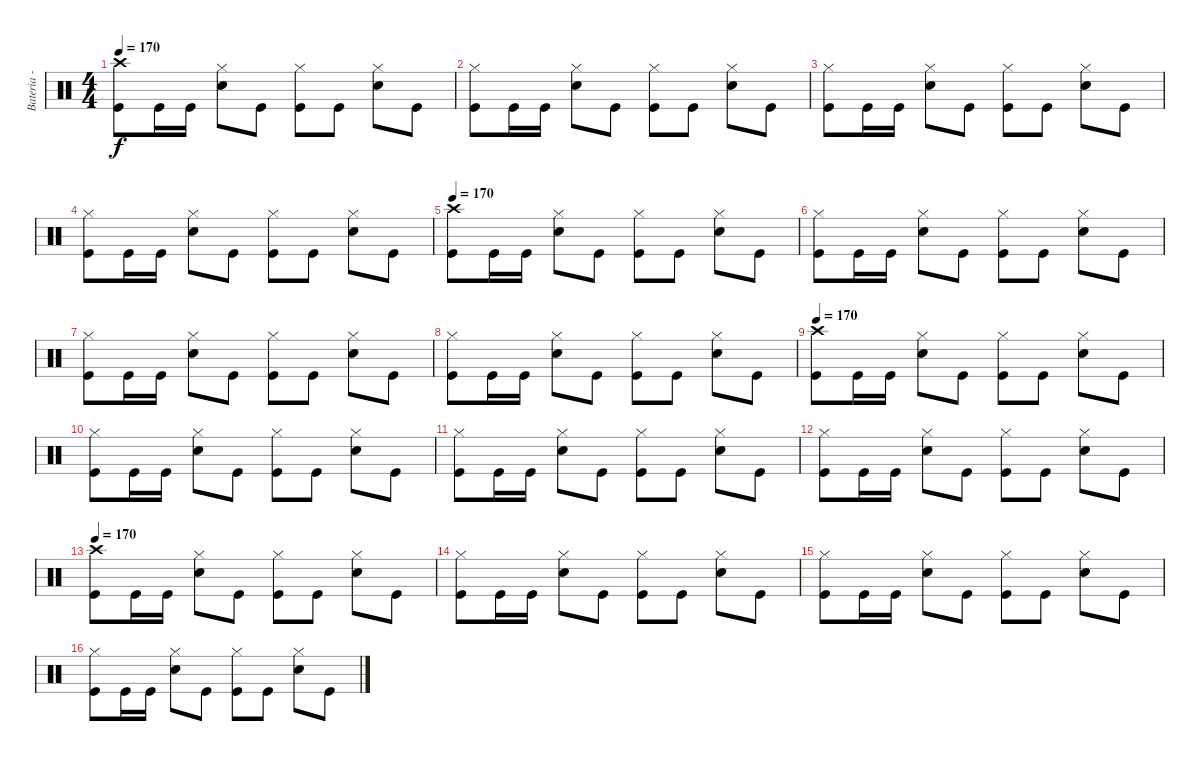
\track ("Bateria - Joaquin" "Bateria - ") {instrument percussion}
\staff {score}
\articulation defaults
\ts (4 4)
\tempo 170
\clef neutral
\ks c
("Crash high (hit)" "Kick (hit)").8{dy f} "Kick (hit)".16 "Kick (hit)".16 ("Hi-Hat (closed)" "Snare (hit) 2").8 "Kick (hit)".8 ("Hi-Hat (closed)" "Kick (hit)").8 "Kick (hit)".8 ("Hi-Hat (closed)" "Snare (hit) 2").8 "Kick (hit)".8 |
("Hi-Hat (closed)" "Kick (hit)").8 "Kick (hit)".16 "Kick (hit)".16 ("Hi-Hat (closed)" "Snare (hit) 2").8 "Kick (hit)".8 ("Hi-Hat (closed)" "Kick (hit)").8 "Kick (hit)".8 ("Hi-Hat (closed)" "Snare (hit) 2").8 "Kick (hit)".8 |
("Hi-Hat (closed)" "Kick (hit)").8 "Kick (hit)".16 "Kick (hit)".16 ("Hi-Hat (closed)" "Snare (hit) 2").8 "Kick (hit)".8 ("Hi-Hat (closed)" "Kick (hit)").8 "Kick (hit)".8 ("Hi-Hat (closed)" "Snare (hit) 2").8 "Kick (hit)".8 |
("Hi-Hat (closed)" "Kick (hit)").8 "Kick (hit)".16 "Kick (hit)".16 ("Hi-Hat (closed)" "Snare (hit) 2").8 "Kick (hit)".8 ("Hi-Hat (closed)" "Kick (hit)").8 "Kick (hit)".8 ("Hi-Hat (closed)" "Snare (hit) 2").8 "Kick (hit)".8 |
\tempo 170
("Crash high (hit)" "Kick (hit)").8 "Kick (hit)".16 "Kick (hit)".16 ("Hi-Hat (closed)" "Snare (hit) 2").8 "Kick (hit)".8 ("Hi-Hat (closed)" "Kick (hit)").8 "Kick (hit)".8 ("Hi-Hat (closed)" "Snare (hit) 2").8 "Kick (hit)".8 |
("Hi-Hat (closed)" "Kick (hit)").8 "Kick (hit)".16 "Kick (hit)".16 ("Hi-Hat (closed)" "Snare (hit) 2").8 "Kick (hit)".8 ("Hi-Hat (closed)" "Kick (hit)").8 "Kick (hit)".8 ("Hi-Hat (closed)" "Snare (hit) 2").8 "Kick (hit)".8 |
("Hi-Hat (closed)" "Kick (hit)").8 "Kick (hit)".16 "Kick (hit)".16 ("Hi-Hat (closed)" "Snare (hit) 2").8 "Kick (hit)".8 ("Hi-Hat (closed)" "Kick (hit)").8 "Kick (hit)".8 ("Hi-Hat (closed)" "Snare (hit) 2").8 "Kick (hit)".8 |
("Hi-Hat (closed)" "Kick (hit)").8 "Kick (hit)".16 "Kick (hit)".16 ("Hi-Hat (closed)" "Snare (hit) 2").8 "Kick (hit)".8 ("Hi-Hat (closed)" "Kick (hit)").8 "Kick (hit)".8 ("Hi-Hat (closed)" "Snare (hit) 2").8 "Kick (hit)".8 |
\tempo 170
("Crash high (hit)" "Kick (hit)").8 "Kick (hit)".16 "Kick (hit)".16 ("Hi-Hat (closed)" "Snare (hit) 2").8 "Kick (hit)".8 ("Hi-Hat (closed)" "Kick (hit)").8 "Kick (hit)".8 ("Hi-Hat (closed)" "Snare (hit) 2").8 "Kick (hit)".8 |
("Hi-Hat (closed)" "Kick (hit)").8 "Kick (hit)".16 "Kick (hit)".16 ("Hi-Hat (closed)" "Snare (hit) 2").8 "Kick (hit)".8 ("Hi-Hat (closed)" "Kick (hit)").8 "Kick (hit)".8 ("Hi-Hat (closed)" "Snare (hit) 2").8 "Kick (hit)".8 |
("Hi-Hat (closed)" "Kick (hit)").8 "Kick (hit)".16 "Kick (hit)".16 ("Hi-Hat (closed)" "Snare (hit) 2").8 "Kick (hit)".8 ("Hi-Hat (closed)" "Kick (hit)").8 "Kick (hit)".8 ("Hi-Hat (closed)" "Snare (hit) 2").8 "Kick (hit)".8 |
("Hi-Hat (closed)" "Kick (hit)").8 "Kick (hit)".16 "Kick (hit)".16 ("Hi-Hat (closed)" "Snare (hit) 2").8 "Kick (hit)".8 ("Hi-Hat (closed)" "Kick (hit)").8 "Kick (hit)".8 ("Hi-Hat (closed)" "Snare (hit) 2").8 "Kick (hit)".8 |
\tempo 170
("Crash high (hit)" "Kick (hit)").8 "Kick (hit)".16 "Kick (hit)".16 ("Hi-Hat (closed)" "Snare (hit) 2").8 "Kick (hit)".8 ("Hi-Hat (closed)" "Kick (hit)").8 "Kick (hit)".8 ("Hi-Hat (closed)" "Snare (hit) 2").8 "Kick (hit)".8 |
("Hi-Hat (closed)" "Kick (hit)").8 "Kick (hit)".16 "Kick (hit)".16 ("Hi-Hat (closed)" "Snare (hit) 2").8 "Kick (hit)".8 ("Hi-Hat (closed)" "Kick (hit)").8 "Kick (hit)".8 ("Hi-Hat (closed)" "Snare (hit) 2").8 "Kick (hit)".8 |
("Hi-Hat (closed)" "Kick (hit)").8 "Kick (hit)".16 "Kick (hit)".16 ("Hi-Hat (closed)" "Snare (hit) 2").8 "Kick (hit)".8 ("Hi-Hat (closed)" "Kick (hit)").8 "Kick (hit)".8 ("Hi-Hat (closed)" "Snare (hit) 2").8 "Kick (hit)".8 |
("Hi-Hat (closed)" "Kick (hit)").8 "Kick (hit)".16 "Kick (hit)".16 ("Hi-Hat (closed)" "Snare (hit) 2").8 "Kick (hit)".8 ("Hi-Hat (closed)" "Kick (hit)").8 "Kick (hit)".8 ("Hi-Hat (closed)" "Snare (hit) 2").8 "Kick (hit)".8
